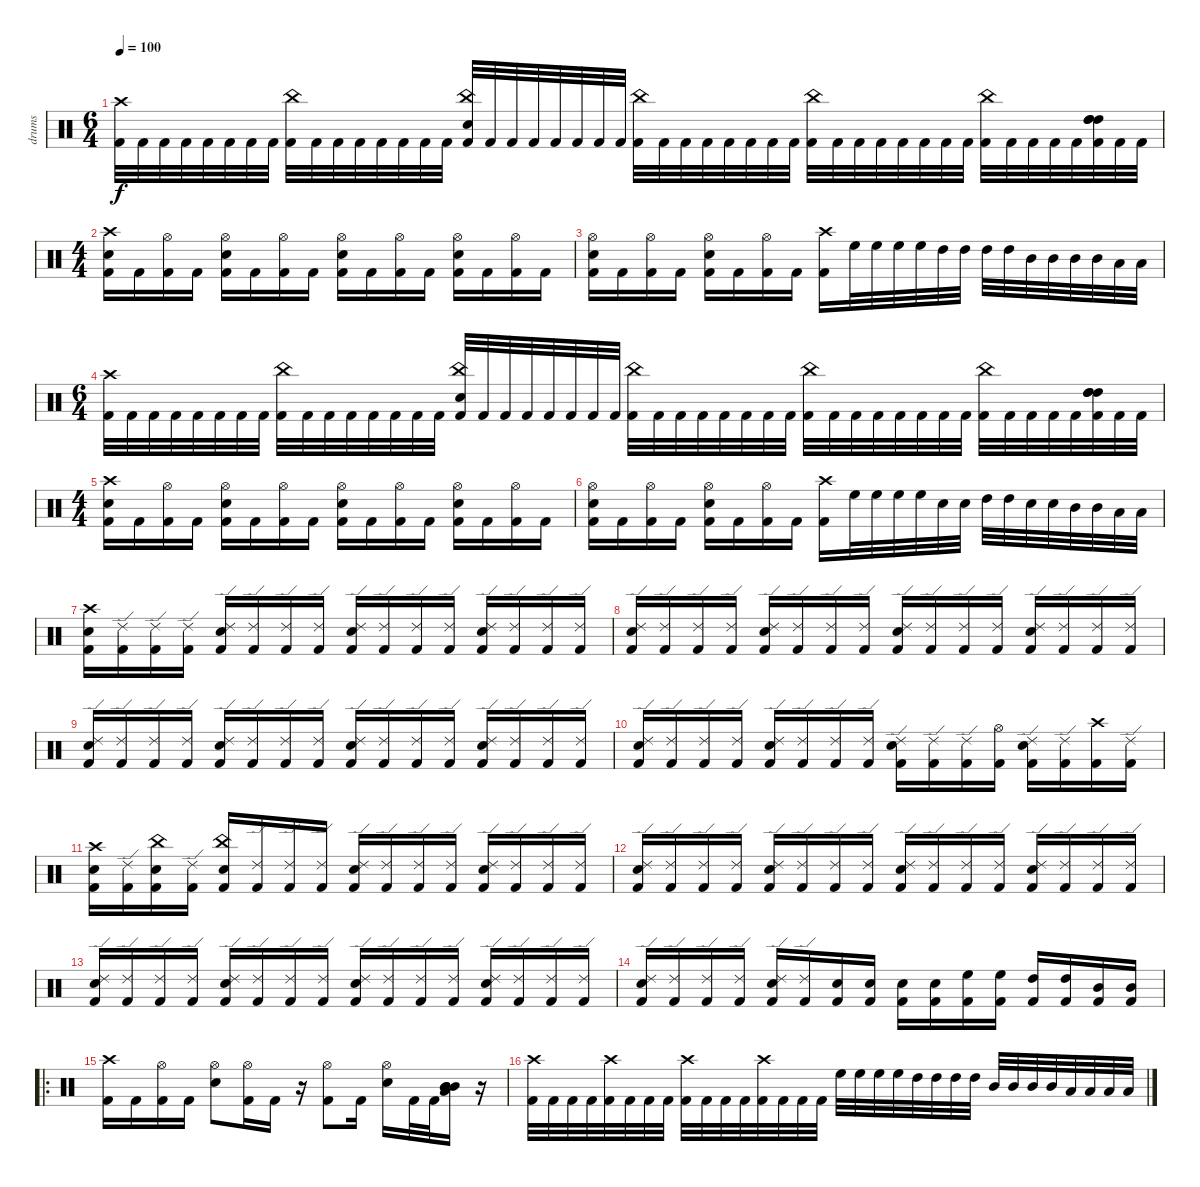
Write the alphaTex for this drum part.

\track ("drums" "drums") {instrument percussion}
\staff {score}
\articulation defaults
\ts (6 4)
\section ("" "")
\tempo 100
\clef neutral
\ks c
("Crash high (hit)" "Kick (hit) 2").32{dy f} "Kick (hit) 2".32 "Kick (hit) 2".32 "Kick (hit) 2".32 "Kick (hit) 2".32 "Kick (hit) 2".32 "Kick (hit) 2".32 "Kick (hit) 2".32 ("China (hit)" "Kick (hit) 2").32 "Kick (hit) 2".32 "Kick (hit) 2".32 "Kick (hit) 2".32 "Kick (hit) 2".32 "Kick (hit) 2".32 "Kick (hit) 2".32 "Kick (hit) 2".32 ("China (hit)" "Electric Snare (hit)" "Kick (hit) 2").32 "Kick (hit) 2".32 "Kick (hit) 2".32 "Kick (hit) 2".32 "Kick (hit) 2".32 "Kick (hit) 2".32 "Kick (hit) 2".32 "Kick (hit) 2".32 ("China (hit)" "Kick (hit) 2").32 "Kick (hit) 2".32 "Kick (hit) 2".32 "Kick (hit) 2".32 "Kick (hit) 2".32 "Kick (hit) 2".32 "Kick (hit) 2".32 "Kick (hit) 2".32 ("China (hit)" "Kick (hit) 2").32 "Kick (hit) 2".32 "Kick (hit) 2".32 "Kick (hit) 2".32 "Kick (hit) 2".32 "Kick (hit) 2".32 "Kick (hit) 2".32 "Kick (hit) 2".32 ("China (hit)" "Kick (hit) 2").32 "Kick (hit) 2".32 "Kick (hit) 2".32 "Kick (hit) 2".32 "Kick (hit) 2".32 ("High Tom (hit)" "High Tom (hit)" "High Tom (hit)" "Kick (hit) 2").32 "Kick (hit) 2".32 "Kick (hit) 2".32 |
\ts (4 4)
("Crash high (hit)" "Electric Snare (hit)" "Kick (hit) 2").16 "Kick (hit) 2".16 ("Hi-Hat (open)" "Kick (hit) 2").16 "Kick (hit) 2".16 ("Hi-Hat (open)" "Electric Snare (hit)" "Kick (hit) 2").16 "Kick (hit) 2".16 ("Hi-Hat (open)" "Kick (hit) 2").16 "Kick (hit) 2".16 ("Hi-Hat (open)" "Electric Snare (hit)" "Kick (hit) 2").16 "Kick (hit) 2".16 ("Hi-Hat (open)" "Kick (hit) 2").16 "Kick (hit) 2".16 ("Hi-Hat (open)" "Electric Snare (hit)" "Kick (hit) 2").16 "Kick (hit) 2".16 ("Hi-Hat (open)" "Kick (hit) 2").16 "Kick (hit) 2".16 |
("Hi-Hat (open)" "Electric Snare (hit)" "Kick (hit) 2").16 "Kick (hit) 2".16 ("Hi-Hat (open)" "Kick (hit) 2").16 "Kick (hit) 2".16 ("Hi-Hat (open)" "Electric Snare (hit)" "Kick (hit) 2").16 "Kick (hit) 2".16 ("Hi-Hat (open)" "Kick (hit) 2").16 "Kick (hit) 2".16 ("Crash high (hit)" "Kick (hit) 2").16 "High Floor Tom (hit)".32 "High Floor Tom (hit)".32 "High Floor Tom (hit)".32 "High Floor Tom (hit)".32 "High Tom (hit)".32 "High Tom (hit)".32 "High Tom (hit)".32 "High Tom (hit)".32 "Mid Tom (hit)".32 "Mid Tom (hit)".32 "Mid Tom (hit)".32 "Mid Tom (hit)".32 "Low Tom (hit)".32 "Low Tom (hit)".32 |
\ts (6 4)
("Crash high (hit)" "Kick (hit) 2").32 "Kick (hit) 2".32 "Kick (hit) 2".32 "Kick (hit) 2".32 "Kick (hit) 2".32 "Kick (hit) 2".32 "Kick (hit) 2".32 "Kick (hit) 2".32 ("China (hit)" "Kick (hit) 2").32 "Kick (hit) 2".32 "Kick (hit) 2".32 "Kick (hit) 2".32 "Kick (hit) 2".32 "Kick (hit) 2".32 "Kick (hit) 2".32 "Kick (hit) 2".32 ("China (hit)" "Electric Snare (hit)" "Kick (hit) 2").32 "Kick (hit) 2".32 "Kick (hit) 2".32 "Kick (hit) 2".32 "Kick (hit) 2".32 "Kick (hit) 2".32 "Kick (hit) 2".32 "Kick (hit) 2".32 ("China (hit)" "Kick (hit) 2").32 "Kick (hit) 2".32 "Kick (hit) 2".32 "Kick (hit) 2".32 "Kick (hit) 2".32 "Kick (hit) 2".32 "Kick (hit) 2".32 "Kick (hit) 2".32 ("China (hit)" "Kick (hit) 2").32 "Kick (hit) 2".32 "Kick (hit) 2".32 "Kick (hit) 2".32 "Kick (hit) 2".32 "Kick (hit) 2".32 "Kick (hit) 2".32 "Kick (hit) 2".32 ("China (hit)" "Kick (hit) 2").32 "Kick (hit) 2".32 "Kick (hit) 2".32 "Kick (hit) 2".32 "Kick (hit) 2".32 ("High Tom (hit)" "High Tom (hit)" "High Tom (hit)" "Kick (hit) 2").32 "Kick (hit) 2".32 "Kick (hit) 2".32 |
\ts (4 4)
("Crash high (hit)" "Electric Snare (hit)" "Kick (hit) 2").16 "Kick (hit) 2".16 ("Hi-Hat (open)" "Kick (hit) 2").16 "Kick (hit) 2".16 ("Hi-Hat (open)" "Electric Snare (hit)" "Kick (hit) 2").16 "Kick (hit) 2".16 ("Hi-Hat (open)" "Kick (hit) 2").16 "Kick (hit) 2".16 ("Hi-Hat (open)" "Electric Snare (hit)" "Kick (hit) 2").16 "Kick (hit) 2".16 ("Hi-Hat (open)" "Kick (hit) 2").16 "Kick (hit) 2".16 ("Hi-Hat (open)" "Electric Snare (hit)" "Kick (hit) 2").16 "Kick (hit) 2".16 ("Hi-Hat (open)" "Kick (hit) 2").16 "Kick (hit) 2".16 |
("Hi-Hat (open)" "Electric Snare (hit)" "Kick (hit) 2").16 "Kick (hit) 2".16 ("Hi-Hat (open)" "Kick (hit) 2").16 "Kick (hit) 2".16 ("Hi-Hat (open)" "Electric Snare (hit)" "Kick (hit) 2").16 "Kick (hit) 2".16 ("Hi-Hat (open)" "Kick (hit) 2").16 "Kick (hit) 2".16 ("Crash high (hit)" "Kick (hit) 2").16 "High Floor Tom (hit)".32 "High Floor Tom (hit)".32 "High Floor Tom (hit)".32 "High Floor Tom (hit)".32 "Electric Snare (hit)".32 "Electric Snare (hit)".32 "High Tom (hit)".32 "High Tom (hit)".32 "Electric Snare (hit)".32 "Electric Snare (hit)".32 "Mid Tom (hit)".32 "Mid Tom (hit)".32 "Low Tom (hit)".32 "Low Tom (hit)".32 |
\section ("" "")
("Crash high (hit)" "Electric Snare (hit)" "Kick (hit) 2").16 ("Ride (edge) 2" "Kick (hit) 2").16 ("Ride (edge) 2" "Kick (hit) 2").16 ("Ride (edge) 2" "Kick (hit) 2").16 ("Ride (edge) 2" "Electric Snare (hit)" "Kick (hit) 2").16 ("Ride (edge) 2" "Kick (hit) 2").16 ("Ride (edge) 2" "Kick (hit) 2").16 ("Ride (edge) 2" "Kick (hit) 2").16 ("Ride (edge) 2" "Electric Snare (hit)" "Kick (hit) 2").16 ("Ride (edge) 2" "Kick (hit) 2").16 ("Ride (edge) 2" "Kick (hit) 2").16 ("Ride (edge) 2" "Kick (hit) 2").16 ("Ride (edge) 2" "Electric Snare (hit)" "Kick (hit) 2").16 ("Ride (edge) 2" "Kick (hit) 2").16 ("Ride (edge) 2" "Kick (hit) 2").16 ("Ride (edge) 2" "Kick (hit) 2").16 |
("Ride (edge) 2" "Electric Snare (hit)" "Kick (hit) 2").16 ("Ride (edge) 2" "Kick (hit) 2").16 ("Ride (edge) 2" "Kick (hit) 2").16 ("Ride (edge) 2" "Kick (hit) 2").16 ("Ride (edge) 2" "Electric Snare (hit)" "Kick (hit) 2").16 ("Ride (edge) 2" "Kick (hit) 2").16 ("Ride (edge) 2" "Kick (hit) 2").16 ("Ride (edge) 2" "Kick (hit) 2").16 ("Ride (edge) 2" "Electric Snare (hit)" "Kick (hit) 2").16 ("Ride (edge) 2" "Kick (hit) 2").16 ("Ride (edge) 2" "Kick (hit) 2").16 ("Ride (edge) 2" "Kick (hit) 2").16 ("Ride (edge) 2" "Electric Snare (hit)" "Kick (hit) 2").16 ("Ride (edge) 2" "Kick (hit) 2").16 ("Ride (edge) 2" "Kick (hit) 2").16 ("Ride (edge) 2" "Kick (hit) 2").16 |
("Ride (edge) 2" "Electric Snare (hit)" "Kick (hit) 2").16 ("Ride (edge) 2" "Kick (hit) 2").16 ("Ride (edge) 2" "Kick (hit) 2").16 ("Ride (edge) 2" "Kick (hit) 2").16 ("Ride (edge) 2" "Electric Snare (hit)" "Kick (hit) 2").16 ("Ride (edge) 2" "Kick (hit) 2").16 ("Ride (edge) 2" "Kick (hit) 2").16 ("Ride (edge) 2" "Kick (hit) 2").16 ("Ride (edge) 2" "Electric Snare (hit)" "Kick (hit) 2").16 ("Ride (edge) 2" "Kick (hit) 2").16 ("Ride (edge) 2" "Kick (hit) 2").16 ("Ride (edge) 2" "Kick (hit) 2").16 ("Ride (edge) 2" "Electric Snare (hit)" "Kick (hit) 2").16 ("Ride (edge) 2" "Kick (hit) 2").16 ("Ride (edge) 2" "Kick (hit) 2").16 ("Ride (edge) 2" "Kick (hit) 2").16 |
("Ride (edge) 2" "Electric Snare (hit)" "Kick (hit) 2").16 ("Ride (edge) 2" "Kick (hit) 2").16 ("Ride (edge) 2" "Kick (hit) 2").16 ("Ride (edge) 2" "Kick (hit) 2").16 ("Ride (edge) 2" "Electric Snare (hit)" "Kick (hit) 2").16 ("Ride (edge) 2" "Kick (hit) 2").16 ("Ride (edge) 2" "Kick (hit) 2").16 ("Ride (edge) 2" "Kick (hit) 2").16 ("Ride (edge) 2" "Electric Snare (hit)" "Kick (hit) 2").16 ("Ride (edge) 2" "Kick (hit) 2").16 ("Ride (edge) 2" "Kick (hit) 2").16 ("Hi-Hat (open)" "Kick (hit) 2").16 ("Ride (edge) 2" "Electric Snare (hit)" "Kick (hit) 2").16 ("Ride (edge) 2" "Kick (hit) 2").16 ("Crash high (hit)" "Kick (hit) 2").16 ("Ride (edge) 2" "Kick (hit) 2").16 |
("Crash high (hit)" "Electric Snare (hit)" "Kick (hit) 2").16 ("Ride (edge) 2" "Kick (hit) 2").16 ("China (hit)" "Electric Snare (hit)" "Kick (hit) 2").16 ("Ride (edge) 2" "Kick (hit) 2").16 ("China (hit)" "Electric Snare (hit)" "Kick (hit) 2").16 ("Ride (edge) 2" "Kick (hit) 2").16 ("Ride (edge) 2" "Kick (hit) 2").16 ("Ride (edge) 2" "Kick (hit) 2").16 ("Ride (edge) 2" "Electric Snare (hit)" "Kick (hit) 2").16 ("Ride (edge) 2" "Kick (hit) 2").16 ("Ride (edge) 2" "Kick (hit) 2").16 ("Ride (edge) 2" "Kick (hit) 2").16 ("Ride (edge) 2" "Electric Snare (hit)" "Kick (hit) 2").16 ("Ride (edge) 2" "Kick (hit) 2").16 ("Ride (edge) 2" "Kick (hit) 2").16 ("Ride (edge) 2" "Kick (hit) 2").16 |
("Ride (edge) 2" "Electric Snare (hit)" "Kick (hit) 2").16 ("Ride (edge) 2" "Kick (hit) 2").16 ("Ride (edge) 2" "Kick (hit) 2").16 ("Ride (edge) 2" "Kick (hit) 2").16 ("Ride (edge) 2" "Electric Snare (hit)" "Kick (hit) 2").16 ("Ride (edge) 2" "Kick (hit) 2").16 ("Ride (edge) 2" "Kick (hit) 2").16 ("Ride (edge) 2" "Kick (hit) 2").16 ("Ride (edge) 2" "Electric Snare (hit)" "Kick (hit) 2").16 ("Ride (edge) 2" "Kick (hit) 2").16 ("Ride (edge) 2" "Kick (hit) 2").16 ("Ride (edge) 2" "Kick (hit) 2").16 ("Ride (edge) 2" "Electric Snare (hit)" "Kick (hit) 2").16 ("Ride (edge) 2" "Kick (hit) 2").16 ("Ride (edge) 2" "Kick (hit) 2").16 ("Ride (edge) 2" "Kick (hit) 2").16 |
("Ride (edge) 2" "Electric Snare (hit)" "Kick (hit) 2").16 ("Ride (edge) 2" "Kick (hit) 2").16 ("Ride (edge) 2" "Kick (hit) 2").16 ("Ride (edge) 2" "Kick (hit) 2").16 ("Ride (edge) 2" "Electric Snare (hit)" "Kick (hit) 2").16 ("Ride (edge) 2" "Kick (hit) 2").16 ("Ride (edge) 2" "Kick (hit) 2").16 ("Ride (edge) 2" "Kick (hit) 2").16 ("Ride (edge) 2" "Electric Snare (hit)" "Kick (hit) 2").16 ("Ride (edge) 2" "Kick (hit) 2").16 ("Ride (edge) 2" "Kick (hit) 2").16 ("Ride (edge) 2" "Kick (hit) 2").16 ("Ride (edge) 2" "Electric Snare (hit)" "Kick (hit) 2").16 ("Ride (edge) 2" "Kick (hit) 2").16 ("Ride (edge) 2" "Kick (hit) 2").16 ("Ride (edge) 2" "Kick (hit) 2").16 |
("Ride (edge) 2" "Electric Snare (hit)" "Kick (hit) 2").16 ("Ride (edge) 2" "Kick (hit) 2").16 ("Ride (edge) 2" "Kick (hit) 2").16 ("Ride (edge) 2" "Kick (hit) 2").16 ("Ride (edge) 2" "Electric Snare (hit)" "Kick (hit) 2").16 ("Ride (edge) 2" "Kick (hit) 2").16 ("Electric Snare (hit)" "Kick (hit) 2").16 ("Electric Snare (hit)" "Kick (hit) 2").16 ("Electric Snare (hit)" "Kick (hit) 2").16 ("Electric Snare (hit)" "Kick (hit) 2").16 ("High Floor Tom (hit)" "Kick (hit) 2").16 ("High Floor Tom (hit)" "Kick (hit) 2").16 ("High Tom (hit)" "Kick (hit) 2").16 ("High Tom (hit)" "Kick (hit) 2").16 ("Mid Tom (hit)" "Kick (hit) 2").16 ("Mid Tom (hit)" "Kick (hit) 2").16 |
\ro
\section ("" "")
("Crash high (hit)" "Kick (hit) 2").16 "Kick (hit) 2".16 ("Hi-Hat (open)" "Kick (hit) 2").16 "Kick (hit) 2".16 ("Hi-Hat (open)" "Electric Snare (hit)").8 ("Hi-Hat (open)" "Kick (hit) 2").16 "Kick (hit) 2".16 r.16 ("Hi-Hat (open)" "Kick (hit) 2").8 "Kick (hit) 2".16 ("Hi-Hat (open)" "Electric Snare (hit)").16 "Kick (hit) 2".32 "Kick (hit) 2".32 ("Mid Tom (hit)" "Mid Tom (hit)" "Mid Tom (hit)" "Low Tom (hit)").16 r.16 |
("Crash high (hit)" "Kick (hit) 2").32 "Kick (hit) 2".32 "Kick (hit) 2".32 "Kick (hit) 2".32 ("Crash high (hit)" "Kick (hit) 2").32 "Kick (hit) 2".32 "Kick (hit) 2".32 "Kick (hit) 2".32 ("Crash high (hit)" "Kick (hit) 2").32 "Kick (hit) 2".32 "Kick (hit) 2".32 "Kick (hit) 2".32 ("Crash high (hit)" "Kick (hit) 2").32 "Kick (hit) 2".32 "Kick (hit) 2".32 "Kick (hit) 2".32 "High Floor Tom (hit)".32 "High Floor Tom (hit)".32 "High Floor Tom (hit)".32 "High Floor Tom (hit)".32 "High Tom (hit)".32 "High Tom (hit)".32 "High Tom (hit)".32 "High Tom (hit)".32 "Mid Tom (hit)".32 "Mid Tom (hit)".32 "Mid Tom (hit)".32 "Mid Tom (hit)".32 "Low Tom (hit)".32 "Low Tom (hit)".32 "Low Tom (hit)".32 "Low Tom (hit)".32
